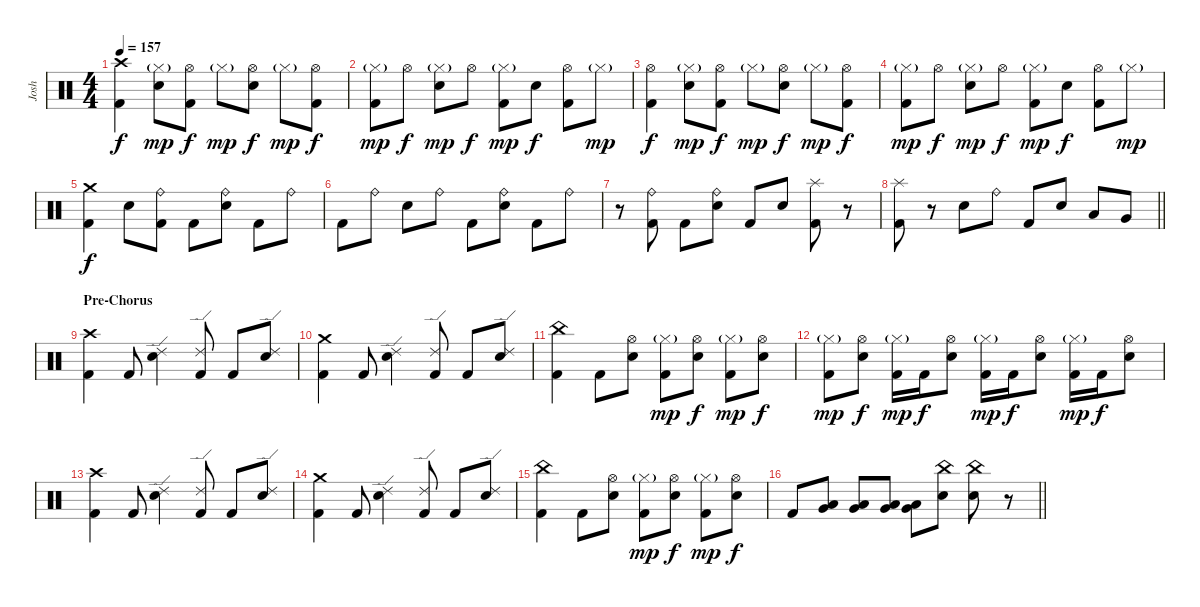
\track ("Josh" "Josh") {instrument percussion}
\staff {score}
\articulation defaults
\ts (4 4)
\tempo 157
\clef neutral
\ks c
("Crash high (hit)" "Kick (hit) 2").4{dy f} ("Hi-Hat (closed)"{g} "Electric Snare (hit)").8{dy mp} ("Hi-Hat (open)" "Kick (hit) 2").8{dy f} "Hi-Hat (closed)"{g}.8{dy mp} ("Hi-Hat (open)" "Electric Snare (hit)").8{dy f} "Hi-Hat (closed)"{g}.8{dy mp} ("Hi-Hat (open)" "Kick (hit) 2").8{dy f} |
("Hi-Hat (closed)"{g} "Kick (hit) 2").8{dy mp} "Hi-Hat (open)".8{dy f} ("Hi-Hat (closed)"{g} "Electric Snare (hit)").8{dy mp} "Hi-Hat (open)".8{dy f} ("Hi-Hat (closed)"{g} "Kick (hit) 2").8{dy mp} "Electric Snare (hit)".8{dy f} ("Hi-Hat (open)" "Kick (hit) 2").8 "Hi-Hat (closed)"{g}.8{dy mp} |
("Hi-Hat (open)" "Kick (hit) 2").4{dy f} ("Hi-Hat (closed)"{g} "Electric Snare (hit)").8{dy mp} ("Hi-Hat (open)" "Kick (hit) 2").8{dy f} "Hi-Hat (closed)"{g}.8{dy mp} ("Hi-Hat (open)" "Electric Snare (hit)").8{dy f} "Hi-Hat (closed)"{g}.8{dy mp} ("Hi-Hat (open)" "Kick (hit) 2").8{dy f} |
("Hi-Hat (closed)"{g} "Kick (hit) 2").8{dy mp} "Hi-Hat (open)".8{dy f} ("Hi-Hat (closed)"{g} "Electric Snare (hit)").8{dy mp} "Hi-Hat (open)".8{dy f} ("Hi-Hat (closed)"{g} "Kick (hit) 2").8{dy mp} "Electric Snare (hit)".8{dy f} ("Hi-Hat (open)" "Kick (hit) 2").8 "Hi-Hat (closed)"{g}.8{dy mp} |
("Crash medium (hit)" "Kick (hit) 2").4{dy f} "Electric Snare (hit)".8 ("Ride (bell)" "Kick (hit) 2").8 "Kick (hit) 2".8 ("Ride (bell)" "Electric Snare (hit)").8 "Kick (hit) 2".8 "Ride (bell)".8 |
"Kick (hit) 2".8 "Ride (bell)".8 "Electric Snare (hit)".8 "Ride (bell)".8 "Kick (hit) 2".8 ("Ride (bell)" "Electric Snare (hit)").8 "Kick (hit) 2".8 "Ride (bell)".8 |
r.8 ("Ride (bell)" "Kick (hit) 2").8 "Kick (hit) 2".8 ("Ride (bell)" "Electric Snare (hit)").8 "Kick (hit) 2".8 "Electric Snare (hit)".8 ("Splash (hit)" "Kick (hit) 2").8 r.8 |
\barLineRight lightlight
("Splash (hit)" "Kick (hit) 2").8 r.8 "Electric Snare (hit)".8 "Ride (bell)".8 "Kick (hit) 2".8 "Electric Snare (hit)".8 "Low Tom (hit)".8 "Very Low Tom (hit)".8 |
\section ("" "Pre-Chorus")
("Crash high (hit)" "Kick (hit) 2").4 "Kick (hit) 2".8 ("Ride (edge) 2" "Electric Snare (hit)").4 ("Ride (edge) 2" "Kick (hit) 2").8 "Kick (hit) 2".8 ("Ride (edge) 2" "Electric Snare (hit)").8 |
("Crash medium (hit)" "Kick (hit) 2").4 "Kick (hit) 2".8 ("Ride (edge) 2" "Electric Snare (hit)").4 ("Ride (edge) 2" "Kick (hit) 2").8 "Kick (hit) 2".8 ("Ride (edge) 2" "Electric Snare (hit)").8 |
("China (hit)" "Kick (hit) 2").4 "Kick (hit) 2".8 ("Hi-Hat (open)" "Electric Snare (hit)").8 ("Hi-Hat (closed)"{g} "Kick (hit) 2").8{dy mp} ("Hi-Hat (open)" "Electric Snare (hit)").8{dy f} ("Hi-Hat (closed)"{g} "Kick (hit) 2").8{dy mp} ("Hi-Hat (open)" "Electric Snare (hit)").8{dy f} |
("Hi-Hat (closed)"{g} "Kick (hit) 2").8{dy mp} ("Hi-Hat (open)" "Electric Snare (hit)").8{dy f} ("Hi-Hat (closed)"{g} "Kick (hit) 2").16{dy mp} "Kick (hit) 2".16{dy f} ("Hi-Hat (open)" "Electric Snare (hit)").8 ("Hi-Hat (closed)"{g} "Kick (hit) 2").16{dy mp} "Kick (hit) 2".16{dy f} ("Hi-Hat (open)" "Electric Snare (hit)").8 ("Hi-Hat (closed)"{g} "Kick (hit) 2").16{dy mp} "Kick (hit) 2".16{dy f} ("Hi-Hat (open)" "Electric Snare (hit)").8 |
("Crash high (hit)" "Kick (hit) 2").4 "Kick (hit) 2".8 ("Ride (edge) 2" "Electric Snare (hit)").4 ("Ride (edge) 2" "Kick (hit) 2").8 "Kick (hit) 2".8 ("Ride (edge) 2" "Electric Snare (hit)").8 |
("Crash medium (hit)" "Kick (hit) 2").4 "Kick (hit) 2".8 ("Ride (edge) 2" "Electric Snare (hit)").4 ("Ride (edge) 2" "Kick (hit) 2").8 "Kick (hit) 2".8 ("Ride (edge) 2" "Electric Snare (hit)").8 |
("China (hit)" "Kick (hit) 2").4 "Kick (hit) 2".8 ("Hi-Hat (open)" "Electric Snare (hit)").8 ("Hi-Hat (closed)"{g} "Kick (hit) 2").8{dy mp} ("Hi-Hat (open)" "Electric Snare (hit)").8{dy f} ("Hi-Hat (closed)"{g} "Kick (hit) 2").8{dy mp} ("Hi-Hat (open)" "Electric Snare (hit)").8{dy f} |
\barLineRight lightlight "Kick (hit) 2".8
("Low Tom (hit)" "Very Low Tom (hit)").8 ("Low Tom (hit)" "Very Low Tom (hit)").8 ("Low Tom (hit)" "Very Low Tom (hit)").8 ("Low Tom (hit)" "Very Low Tom (hit)").8 ("China (hit)" "Electric Snare (hit)").8 ("China (hit)" "Electric Snare (hit)").8 r.8
